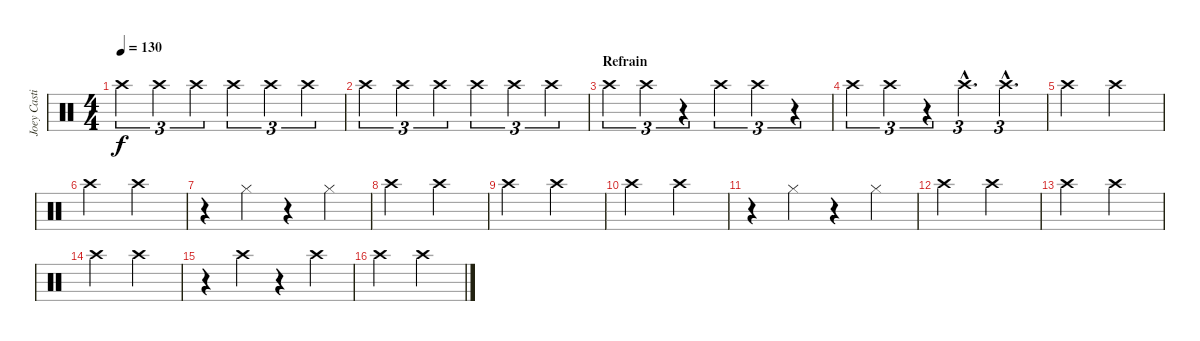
\track ("Joey Castillo" "Joey Casti") {instrument percussion}
\staff {score}
\articulation defaults
\ts (4 4)
\tempo 130
\clef neutral
\ks c "Crash high (hit)".4{tu (3 2) dy f} "Crash high (hit)".4{tu (3 2)} "Crash high (hit)".4{tu (3 2)} "Crash high (hit)".4{tu (3 2)} "Crash high (hit)".4{tu (3 2)} "Crash high (hit)".4{tu (3 2)}
|
"Crash high (hit)".4{tu (3 2)} "Crash high (hit)".4{tu (3 2)} "Crash high (hit)".4{tu (3 2)} "Crash high (hit)".4{tu (3 2)} "Crash high (hit)".4{tu (3 2)} "Crash high (hit)".4{tu (3 2)} |
\section ("" "Refrain")
"Crash high (hit)".4{tu (3 2)} "Crash high (hit)".4{tu (3 2)} r.4{tu (3 2)} "Crash high (hit)".4{tu (3 2)} "Crash high (hit)".4{tu (3 2)} r.4{tu (3 2)} |
"Crash high (hit)".4{tu (3 2)} "Crash high (hit)".4{tu (3 2)} r.4{tu (3 2)} "Crash high (hit)"{hac}.4{d tu (3 2)} "Crash high (hit)"{hac}.4{d tu (3 2)} |
"Crash high (hit)".2 "Crash high (hit)".2 |
"Crash high (hit)".2 "Crash high (hit)".2 |
r.4 "Hi-Hat (closed)".4 r.4 "Hi-Hat (closed)".4 |
"Crash high (hit)".2 "Crash high (hit)".2 |
"Crash high (hit)".2 "Crash high (hit)".2 |
"Crash high (hit)".2 "Crash high (hit)".2 |
r.4 "Hi-Hat (closed)".4 r.4 "Hi-Hat (closed)".4 |
"Crash high (hit)".2 "Crash high (hit)".2 |
"Crash high (hit)".2 "Crash high (hit)".2 |
"Crash high (hit)".2 "Crash high (hit)".2 |
r.4 "Crash high (hit)".4 r.4 "Crash high (hit)".4 |
"Crash high (hit)".2 "Crash high (hit)".2
